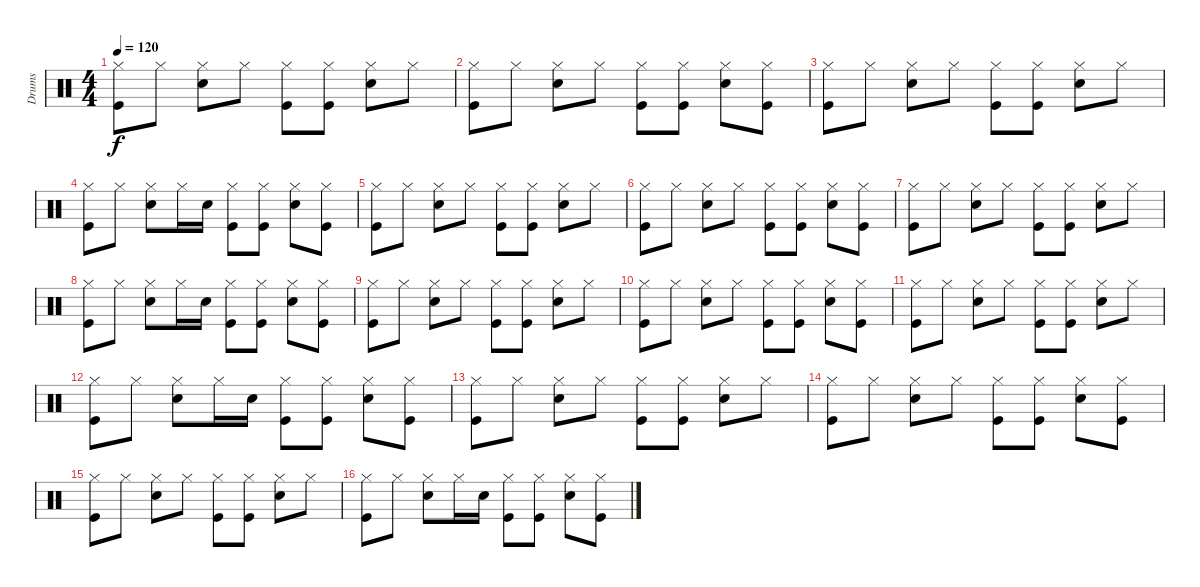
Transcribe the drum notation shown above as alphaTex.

\track ("Drums" "Drums") {instrument percussion}
\staff {score}
\articulation defaults
\ts (4 4)
\tempo 120
\clef neutral
\ks c
("Hi-Hat (closed)" "Kick (hit)").8{dy f} "Hi-Hat (closed)".8 ("Hi-Hat (closed)" "Snare (hit) 2").8 "Hi-Hat (closed)".8 ("Hi-Hat (closed)" "Kick (hit)").8 ("Hi-Hat (closed)" "Kick (hit)").8 ("Hi-Hat (closed)" "Snare (hit) 2").8 "Hi-Hat (closed)".8 |
("Hi-Hat (closed)" "Kick (hit)").8 "Hi-Hat (closed)".8 ("Hi-Hat (closed)" "Snare (hit) 2").8 "Hi-Hat (closed)".8 ("Hi-Hat (closed)" "Kick (hit)").8 ("Hi-Hat (closed)" "Kick (hit)").8 ("Hi-Hat (closed)" "Snare (hit) 2").8 ("Hi-Hat (closed)" "Kick (hit)").8 |
("Hi-Hat (closed)" "Kick (hit)").8 "Hi-Hat (closed)".8 ("Hi-Hat (closed)" "Snare (hit) 2").8 "Hi-Hat (closed)".8 ("Hi-Hat (closed)" "Kick (hit)").8 ("Hi-Hat (closed)" "Kick (hit)").8 ("Hi-Hat (closed)" "Snare (hit) 2").8 "Hi-Hat (closed)".8 |
("Hi-Hat (closed)" "Kick (hit)").8 "Hi-Hat (closed)".8 ("Hi-Hat (closed)" "Snare (hit) 2").8 "Hi-Hat (closed)".16 "Snare (hit) 2".16 ("Hi-Hat (closed)" "Kick (hit)").8 ("Hi-Hat (closed)" "Kick (hit)").8 ("Hi-Hat (closed)" "Snare (hit) 2").8 ("Hi-Hat (closed)" "Kick (hit)").8 |
("Hi-Hat (closed)" "Kick (hit)").8 "Hi-Hat (closed)".8 ("Hi-Hat (closed)" "Snare (hit) 2").8 "Hi-Hat (closed)".8 ("Hi-Hat (closed)" "Kick (hit)").8 ("Hi-Hat (closed)" "Kick (hit)").8 ("Hi-Hat (closed)" "Snare (hit) 2").8 "Hi-Hat (closed)".8 |
("Hi-Hat (closed)" "Kick (hit)").8 "Hi-Hat (closed)".8 ("Hi-Hat (closed)" "Snare (hit) 2").8 "Hi-Hat (closed)".8 ("Hi-Hat (closed)" "Kick (hit)").8 ("Hi-Hat (closed)" "Kick (hit)").8 ("Hi-Hat (closed)" "Snare (hit) 2").8 ("Hi-Hat (closed)" "Kick (hit)").8 |
("Hi-Hat (closed)" "Kick (hit)").8 "Hi-Hat (closed)".8 ("Hi-Hat (closed)" "Snare (hit) 2").8 "Hi-Hat (closed)".8 ("Hi-Hat (closed)" "Kick (hit)").8 ("Hi-Hat (closed)" "Kick (hit)").8 ("Hi-Hat (closed)" "Snare (hit) 2").8 "Hi-Hat (closed)".8 |
("Hi-Hat (closed)" "Kick (hit)").8 "Hi-Hat (closed)".8 ("Hi-Hat (closed)" "Snare (hit) 2").8 "Hi-Hat (closed)".16 "Snare (hit) 2".16 ("Hi-Hat (closed)" "Kick (hit)").8 ("Hi-Hat (closed)" "Kick (hit)").8 ("Hi-Hat (closed)" "Snare (hit) 2").8 ("Hi-Hat (closed)" "Kick (hit)").8 |
("Hi-Hat (closed)" "Kick (hit)").8 "Hi-Hat (closed)".8 ("Hi-Hat (closed)" "Snare (hit) 2").8 "Hi-Hat (closed)".8 ("Hi-Hat (closed)" "Kick (hit)").8 ("Hi-Hat (closed)" "Kick (hit)").8 ("Hi-Hat (closed)" "Snare (hit) 2").8 "Hi-Hat (closed)".8 |
("Hi-Hat (closed)" "Kick (hit)").8 "Hi-Hat (closed)".8 ("Hi-Hat (closed)" "Snare (hit) 2").8 "Hi-Hat (closed)".8 ("Hi-Hat (closed)" "Kick (hit)").8 ("Hi-Hat (closed)" "Kick (hit)").8 ("Hi-Hat (closed)" "Snare (hit) 2").8 ("Hi-Hat (closed)" "Kick (hit)").8 |
("Hi-Hat (closed)" "Kick (hit)").8 "Hi-Hat (closed)".8 ("Hi-Hat (closed)" "Snare (hit) 2").8 "Hi-Hat (closed)".8 ("Hi-Hat (closed)" "Kick (hit)").8 ("Hi-Hat (closed)" "Kick (hit)").8 ("Hi-Hat (closed)" "Snare (hit) 2").8 "Hi-Hat (closed)".8 |
("Hi-Hat (closed)" "Kick (hit)").8 "Hi-Hat (closed)".8 ("Hi-Hat (closed)" "Snare (hit) 2").8 "Hi-Hat (closed)".16 "Snare (hit) 2".16 ("Hi-Hat (closed)" "Kick (hit)").8 ("Hi-Hat (closed)" "Kick (hit)").8 ("Hi-Hat (closed)" "Snare (hit) 2").8 ("Hi-Hat (closed)" "Kick (hit)").8 |
("Hi-Hat (closed)" "Kick (hit)").8 "Hi-Hat (closed)".8 ("Hi-Hat (closed)" "Snare (hit) 2").8 "Hi-Hat (closed)".8 ("Hi-Hat (closed)" "Kick (hit)").8 ("Hi-Hat (closed)" "Kick (hit)").8 ("Hi-Hat (closed)" "Snare (hit) 2").8 "Hi-Hat (closed)".8 |
("Hi-Hat (closed)" "Kick (hit)").8 "Hi-Hat (closed)".8 ("Hi-Hat (closed)" "Snare (hit) 2").8 "Hi-Hat (closed)".8 ("Hi-Hat (closed)" "Kick (hit)").8 ("Hi-Hat (closed)" "Kick (hit)").8 ("Hi-Hat (closed)" "Snare (hit) 2").8 ("Hi-Hat (closed)" "Kick (hit)").8 |
("Hi-Hat (closed)" "Kick (hit)").8 "Hi-Hat (closed)".8 ("Hi-Hat (closed)" "Snare (hit) 2").8 "Hi-Hat (closed)".8 ("Hi-Hat (closed)" "Kick (hit)").8 ("Hi-Hat (closed)" "Kick (hit)").8 ("Hi-Hat (closed)" "Snare (hit) 2").8 "Hi-Hat (closed)".8 |
("Hi-Hat (closed)" "Kick (hit)").8 "Hi-Hat (closed)".8 ("Hi-Hat (closed)" "Snare (hit) 2").8 "Hi-Hat (closed)".16 "Snare (hit) 2".16 ("Hi-Hat (closed)" "Kick (hit)").8 ("Hi-Hat (closed)" "Kick (hit)").8 ("Hi-Hat (closed)" "Snare (hit) 2").8 ("Hi-Hat (closed)" "Kick (hit)").8
